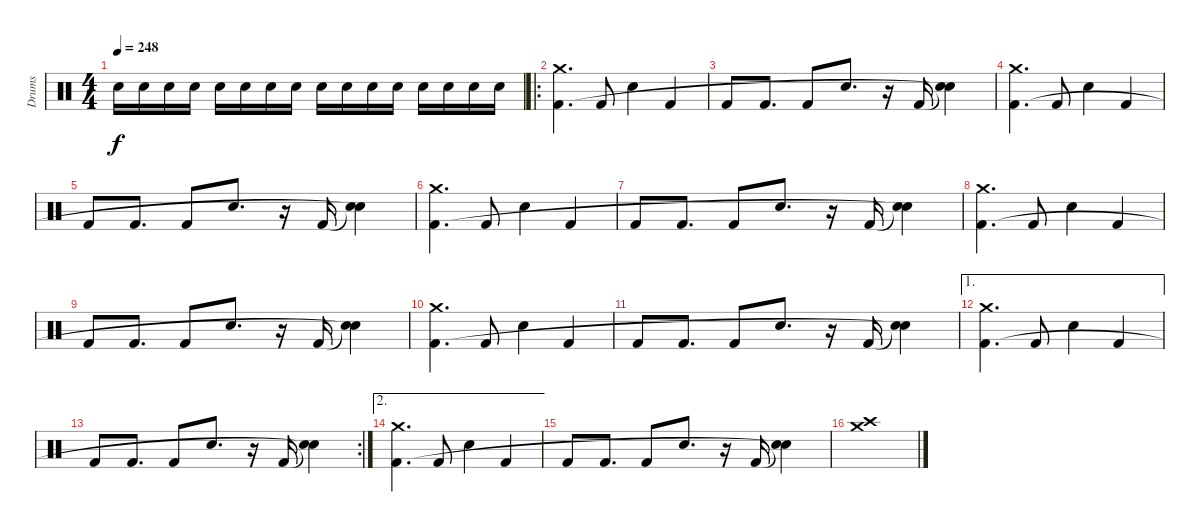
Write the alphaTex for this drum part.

\track ("Drums" "Drums") {instrument percussion}
\staff {score}
\articulation defaults
\ts (4 4)
\tempo 248
\clef neutral
\ks c "Electric Snare (hit)".16{dy f} "Electric Snare (hit)".16 "Electric Snare (hit)".16 "Electric Snare (hit)".16 "Electric Snare (hit)".16 "Electric Snare (hit)".16 "Electric Snare (hit)".16 "Electric Snare (hit)".16 "Electric Snare (hit)".16 "Electric Snare (hit)".16 "Electric Snare (hit)".16 "Electric Snare (hit)".16 "Electric Snare (hit)".16 "Electric Snare (hit)".16 "Electric Snare (hit)".16 "Electric Snare (hit)".16
|
\ro
("Crash medium (hit)" "Kick (hit) 2").4{d} "Kick (hit) 2".8 "Electric Snare (hit)".4 "Kick (hit) 2".4 |
"Kick (hit) 2".8 "Kick (hit) 2".8{d} "Kick (hit) 2".8 "Electric Snare (hit)".8{d} r.16 "Kick (hit) 2".16 ("Snare (hit)"{t} "Snare (hit)"{t}).4 |
("Crash medium (hit)" "Kick (hit) 2").4{d} "Kick (hit) 2".8 "Electric Snare (hit)".4 "Kick (hit) 2".4 |
"Kick (hit) 2".8 "Kick (hit) 2".8{d} "Kick (hit) 2".8 "Electric Snare (hit)".8{d} r.16 "Kick (hit) 2".16 ("Snare (hit)"{t} "Snare (hit)"{t}).4 |
("Crash medium (hit)" "Kick (hit) 2").4{d} "Kick (hit) 2".8 "Electric Snare (hit)".4 "Kick (hit) 2".4 |
"Kick (hit) 2".8 "Kick (hit) 2".8{d} "Kick (hit) 2".8 "Electric Snare (hit)".8{d} r.16 "Kick (hit) 2".16 ("Snare (hit)"{t} "Snare (hit)"{t}).4 |
("Crash medium (hit)" "Kick (hit) 2").4{d} "Kick (hit) 2".8 "Electric Snare (hit)".4 "Kick (hit) 2".4 |
"Kick (hit) 2".8 "Kick (hit) 2".8{d} "Kick (hit) 2".8 "Electric Snare (hit)".8{d} r.16 "Kick (hit) 2".16 ("Snare (hit)"{t} "Snare (hit)"{t}).4 |
("Crash medium (hit)" "Kick (hit) 2").4{d} "Kick (hit) 2".8 "Electric Snare (hit)".4 "Kick (hit) 2".4 |
"Kick (hit) 2".8 "Kick (hit) 2".8{d} "Kick (hit) 2".8 "Electric Snare (hit)".8{d} r.16 "Kick (hit) 2".16 ("Snare (hit)"{t} "Snare (hit)"{t}).4 |
\ae 1
("Crash medium (hit)" "Kick (hit) 2").4{d} "Kick (hit) 2".8 "Electric Snare (hit)".4 "Kick (hit) 2".4 |
\rc 2 "Kick (hit) 2".8 "Kick (hit) 2".8{d} "Kick (hit) 2".8 "Electric Snare (hit)".8{d}
r.16 "Kick (hit) 2".16 ("Snare (hit)"{t} "Snare (hit)"{t}).4 |
\ae 2
("Crash medium (hit)" "Kick (hit) 2").4{d} "Kick (hit) 2".8 "Electric Snare (hit)".4 "Kick (hit) 2".4 |
"Kick (hit) 2".8 "Kick (hit) 2".8{d} "Kick (hit) 2".8 "Electric Snare (hit)".8{d} r.16 "Kick (hit) 2".16 ("Snare (hit)"{t} "Snare (hit)"{t}).4 |
("Crash medium (hit)" "Crash high (hit)").1
